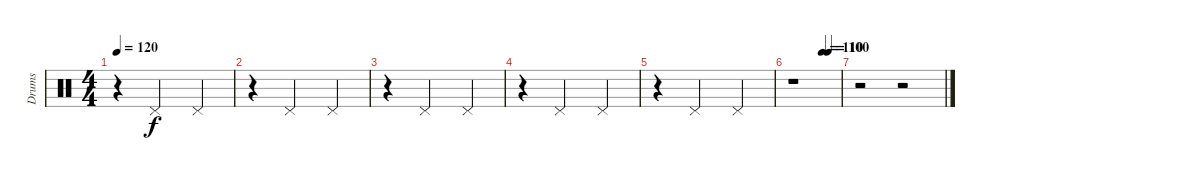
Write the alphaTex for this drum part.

\track ("Drums" "Drums") {instrument percussion}
\staff {score}
\articulation defaults
\ts (4 4)
\tempo 120
\clef neutral
\ks c
r.4{dy f} "Pedal Hi-Hat (hit)".2 "Pedal Hi-Hat (hit)".4 |
r.4 "Pedal Hi-Hat (hit)".2 "Pedal Hi-Hat (hit)".4 |
r.4 "Pedal Hi-Hat (hit)".2 "Pedal Hi-Hat (hit)".4 |
r.4 "Pedal Hi-Hat (hit)".2 "Pedal Hi-Hat (hit)".4 |
r.4 "Pedal Hi-Hat (hit)".2 "Pedal Hi-Hat (hit)".4 |
\tempo (110 0.625)
\tempo (100 0.75)
r.1 |
r.2 r.2
